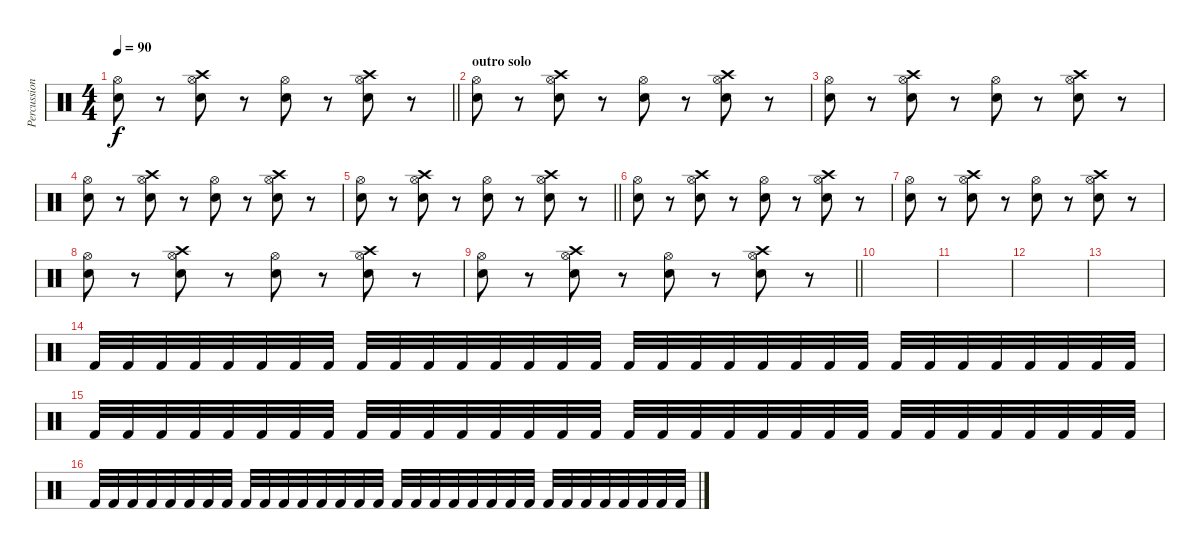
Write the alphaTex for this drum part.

\track ("Percussion" "Percussion") {instrument percussion}
\staff {score}
\articulation defaults
\ts (4 4)
\tempo 90
\clef neutral
\barLineRight lightlight
\ks c
("Electric Snare (hit)" "Hi-Hat (open)").8{dy f} r.8 ("Crash high (hit)" "Electric Snare (hit)" "Hi-Hat (open)").8 r.8 ("Electric Snare (hit)" "Hi-Hat (open)").8 r.8 ("Crash high (hit)" "Electric Snare (hit)" "Hi-Hat (open)").8 r.8 |
\section ("" "outro solo")
("Electric Snare (hit)" "Hi-Hat (open)").8 r.8 ("Crash high (hit)" "Electric Snare (hit)" "Hi-Hat (open)").8 r.8 ("Electric Snare (hit)" "Hi-Hat (open)").8 r.8 ("Crash high (hit)" "Electric Snare (hit)" "Hi-Hat (open)").8 r.8 |
("Electric Snare (hit)" "Hi-Hat (open)").8 r.8 ("Crash high (hit)" "Electric Snare (hit)" "Hi-Hat (open)").8 r.8 ("Electric Snare (hit)" "Hi-Hat (open)").8 r.8 ("Crash high (hit)" "Electric Snare (hit)" "Hi-Hat (open)").8 r.8 |
("Electric Snare (hit)" "Hi-Hat (open)").8 r.8 ("Crash high (hit)" "Electric Snare (hit)" "Hi-Hat (open)").8 r.8 ("Electric Snare (hit)" "Hi-Hat (open)").8 r.8 ("Crash high (hit)" "Electric Snare (hit)" "Hi-Hat (open)").8 r.8 |
\barLineRight lightlight
("Electric Snare (hit)" "Hi-Hat (open)").8 r.8 ("Crash high (hit)" "Electric Snare (hit)" "Hi-Hat (open)").8 r.8 ("Electric Snare (hit)" "Hi-Hat (open)").8 r.8 ("Crash high (hit)" "Electric Snare (hit)" "Hi-Hat (open)").8 r.8 |
("Electric Snare (hit)" "Hi-Hat (open)").8 r.8 ("Crash high (hit)" "Electric Snare (hit)" "Hi-Hat (open)").8 r.8 ("Electric Snare (hit)" "Hi-Hat (open)").8 r.8 ("Crash high (hit)" "Electric Snare (hit)" "Hi-Hat (open)").8 r.8 |
("Electric Snare (hit)" "Hi-Hat (open)").8 r.8 ("Crash high (hit)" "Electric Snare (hit)" "Hi-Hat (open)").8 r.8 ("Electric Snare (hit)" "Hi-Hat (open)").8 r.8 ("Crash high (hit)" "Electric Snare (hit)" "Hi-Hat (open)").8 r.8 |
("Electric Snare (hit)" "Hi-Hat (open)").8 r.8 ("Crash high (hit)" "Electric Snare (hit)" "Hi-Hat (open)").8 r.8 ("Electric Snare (hit)" "Hi-Hat (open)").8 r.8 ("Crash high (hit)" "Electric Snare (hit)" "Hi-Hat (open)").8 r.8 |
\barLineRight lightlight
("Electric Snare (hit)" "Hi-Hat (open)").8 r.8 ("Crash high (hit)" "Electric Snare (hit)" "Hi-Hat (open)").8 r.8 ("Electric Snare (hit)" "Hi-Hat (open)").8 r.8 ("Crash high (hit)" "Electric Snare (hit)" "Hi-Hat (open)").8 r.8 |
|
|
|
|
"Kick (hit) 2".32 "Kick (hit) 2".32 "Kick (hit) 2".32 "Kick (hit) 2".32 "Kick (hit) 2".32 "Kick (hit) 2".32 "Kick (hit) 2".32 "Kick (hit) 2".32 "Kick (hit) 2".32 "Kick (hit) 2".32 "Kick (hit) 2".32 "Kick (hit) 2".32 "Kick (hit) 2".32 "Kick (hit) 2".32 "Kick (hit) 2".32 "Kick (hit) 2".32 "Kick (hit) 2".32 "Kick (hit) 2".32 "Kick (hit) 2".32 "Kick (hit) 2".32 "Kick (hit) 2".32 "Kick (hit) 2".32 "Kick (hit) 2".32 "Kick (hit) 2".32 "Kick (hit) 2".32 "Kick (hit) 2".32 "Kick (hit) 2".32 "Kick (hit) 2".32 "Kick (hit) 2".32 "Kick (hit) 2".32 "Kick (hit) 2".32 "Kick (hit) 2".32 |
"Kick (hit) 2".32 "Kick (hit) 2".32 "Kick (hit) 2".32 "Kick (hit) 2".32 "Kick (hit) 2".32 "Kick (hit) 2".32 "Kick (hit) 2".32 "Kick (hit) 2".32 "Kick (hit) 2".32 "Kick (hit) 2".32 "Kick (hit) 2".32 "Kick (hit) 2".32 "Kick (hit) 2".32 "Kick (hit) 2".32 "Kick (hit) 2".32 "Kick (hit) 2".32 "Kick (hit) 2".32 "Kick (hit) 2".32 "Kick (hit) 2".32 "Kick (hit) 2".32 "Kick (hit) 2".32 "Kick (hit) 2".32 "Kick (hit) 2".32 "Kick (hit) 2".32 "Kick (hit) 2".32 "Kick (hit) 2".32 "Kick (hit) 2".32 "Kick (hit) 2".32 "Kick (hit) 2".32 "Kick (hit) 2".32 "Kick (hit) 2".32 "Kick (hit) 2".32 |
"Kick (hit) 2".32 "Kick (hit) 2".32 "Kick (hit) 2".32 "Kick (hit) 2".32 "Kick (hit) 2".32 "Kick (hit) 2".32 "Kick (hit) 2".32 "Kick (hit) 2".32 "Kick (hit) 2".32 "Kick (hit) 2".32 "Kick (hit) 2".32 "Kick (hit) 2".32 "Kick (hit) 2".32 "Kick (hit) 2".32 "Kick (hit) 2".32 "Kick (hit) 2".32 "Kick (hit) 2".32 "Kick (hit) 2".32 "Kick (hit) 2".32 "Kick (hit) 2".32 "Kick (hit) 2".32 "Kick (hit) 2".32 "Kick (hit) 2".32 "Kick (hit) 2".32 "Kick (hit) 2".32 "Kick (hit) 2".32 "Kick (hit) 2".32 "Kick (hit) 2".32 "Kick (hit) 2".32 "Kick (hit) 2".32 "Kick (hit) 2".32 "Kick (hit) 2".32
